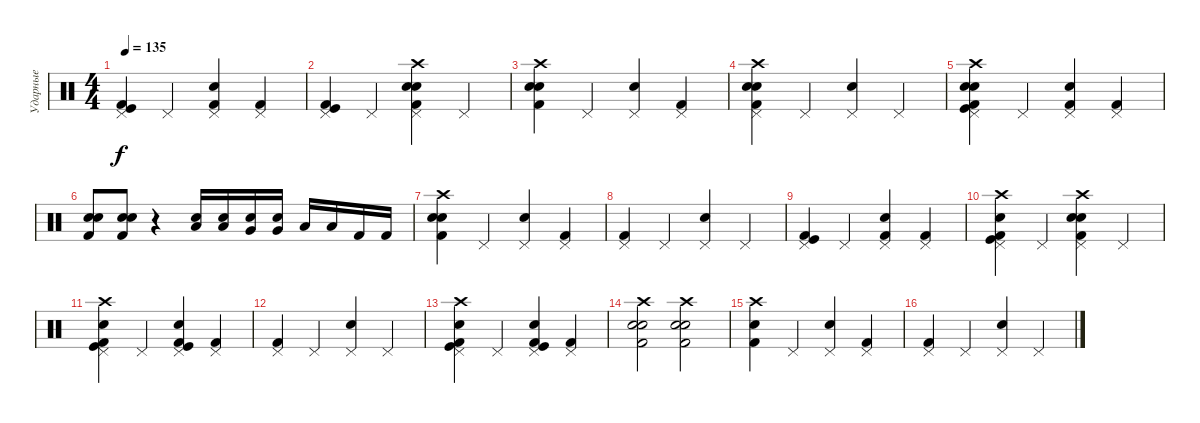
\track ("Ударные" "Ударные") {instrument percussion}
\staff {score}
\articulation defaults
\ts (4 4)
\tempo 135
\clef neutral
\ks c
("Pedal Hi-Hat (hit)" "Kick (hit) 2" "Kick (hit)").4{dy f} "Pedal Hi-Hat (hit)".4 ("Pedal Hi-Hat (hit)" "Electric Snare (hit)" "Kick (hit) 2").4 ("Pedal Hi-Hat (hit)" "Kick (hit) 2").4 |
("Kick (hit) 2" "Kick (hit)" "Pedal Hi-Hat (hit)").4 "Pedal Hi-Hat (hit)".4 ("Snare (hit) 2" "Kick (hit) 2" "Electric Snare (hit)" "Pedal Hi-Hat (hit)" "Crash high (hit)").4 "Pedal Hi-Hat (hit)".4 |
("Kick (hit) 2" "Snare (hit) 2" "Crash high (hit)" "Electric Snare (hit)").4 "Pedal Hi-Hat (hit)".4 ("Electric Snare (hit)" "Pedal Hi-Hat (hit)").4 ("Kick (hit) 2" "Pedal Hi-Hat (hit)").4 |
("Pedal Hi-Hat (hit)" "Kick (hit) 2" "Snare (hit) 2" "Crash high (hit)" "Electric Snare (hit)").4 "Pedal Hi-Hat (hit)".4 ("Pedal Hi-Hat (hit)" "Electric Snare (hit)").4 "Pedal Hi-Hat (hit)".4 |
("Snare (hit) 2" "Pedal Hi-Hat (hit)" "Kick (hit) 2" "Kick (hit)" "Crash high (hit)" "Electric Snare (hit)").4 "Pedal Hi-Hat (hit)".4 ("Pedal Hi-Hat (hit)" "Electric Snare (hit)" "Kick (hit) 2").4 ("Pedal Hi-Hat (hit)" "Kick (hit) 2").4 |
("Kick (hit) 2" "Electric Snare (hit)" "Snare (hit) 2").8 ("Kick (hit) 2" "Electric Snare (hit)" "Snare (hit) 2").8 r.4 ("Low Tom (hit)" "Electric Snare (hit)").16 ("Low Tom (hit)" "Electric Snare (hit)").16 ("Very Low Tom (hit)" "Snare (hit) 2").16 ("Very Low Tom (hit)" "Snare (hit) 2").16 "Low Floor Tom (hit)".16 "Low Floor Tom (hit)".16 "Kick (hit) 2".16 "Kick (hit) 2".16 |
("Electric Snare (hit)" "Kick (hit) 2" "Snare (hit) 2" "Crash high (hit)").4 "Pedal Hi-Hat (hit)".4 ("Electric Snare (hit)" "Pedal Hi-Hat (hit)").4 ("Kick (hit) 2" "Pedal Hi-Hat (hit)").4 |
("Pedal Hi-Hat (hit)" "Kick (hit) 2").4 "Pedal Hi-Hat (hit)".4 ("Pedal Hi-Hat (hit)" "Electric Snare (hit)").4 "Pedal Hi-Hat (hit)".4 |
("Pedal Hi-Hat (hit)" "Kick (hit) 2" "Kick (hit)").4 "Pedal Hi-Hat (hit)".4 ("Pedal Hi-Hat (hit)" "Electric Snare (hit)" "Kick (hit) 2").4 ("Pedal Hi-Hat (hit)" "Kick (hit) 2").4 |
("Crash high (hit)" "Kick (hit) 2" "Kick (hit)" "Pedal Hi-Hat (hit)" "Snare (hit) 2").4 "Pedal Hi-Hat (hit)".4 ("Snare (hit) 2" "Crash high (hit)" "Electric Snare (hit)" "Pedal Hi-Hat (hit)" "Kick (hit) 2").4 "Pedal Hi-Hat (hit)".4 |
("Pedal Hi-Hat (hit)" "Kick (hit)" "Crash high (hit)" "Snare (hit) 2" "Kick (hit) 2").4 "Pedal Hi-Hat (hit)".4 ("Kick (hit)" "Pedal Hi-Hat (hit)" "Electric Snare (hit)" "Kick (hit) 2").4 ("Pedal Hi-Hat (hit)" "Kick (hit) 2").4 |
("Pedal Hi-Hat (hit)" "Kick (hit) 2").4 "Pedal Hi-Hat (hit)".4 ("Pedal Hi-Hat (hit)" "Electric Snare (hit)").4 "Pedal Hi-Hat (hit)".4 |
("Pedal Hi-Hat (hit)" "Kick (hit)" "Crash high (hit)" "Snare (hit) 2" "Kick (hit) 2").4 "Pedal Hi-Hat (hit)".4 ("Kick (hit)" "Pedal Hi-Hat (hit)" "Electric Snare (hit)" "Kick (hit) 2").4 ("Pedal Hi-Hat (hit)" "Kick (hit) 2").4 |
("Kick (hit) 2" "Snare (hit) 2" "Crash high (hit)" "Electric Snare (hit)").2 ("Kick (hit) 2" "Snare (hit) 2" "Crash high (hit)" "Electric Snare (hit)").2 |
("Kick (hit) 2" "Snare (hit) 2" "Crash high (hit)").4 "Pedal Hi-Hat (hit)".4 ("Electric Snare (hit)" "Pedal Hi-Hat (hit)").4 ("Kick (hit) 2" "Pedal Hi-Hat (hit)").4 |
("Pedal Hi-Hat (hit)" "Kick (hit) 2").4 "Pedal Hi-Hat (hit)".4 ("Pedal Hi-Hat (hit)" "Electric Snare (hit)").4 "Pedal Hi-Hat (hit)".4
